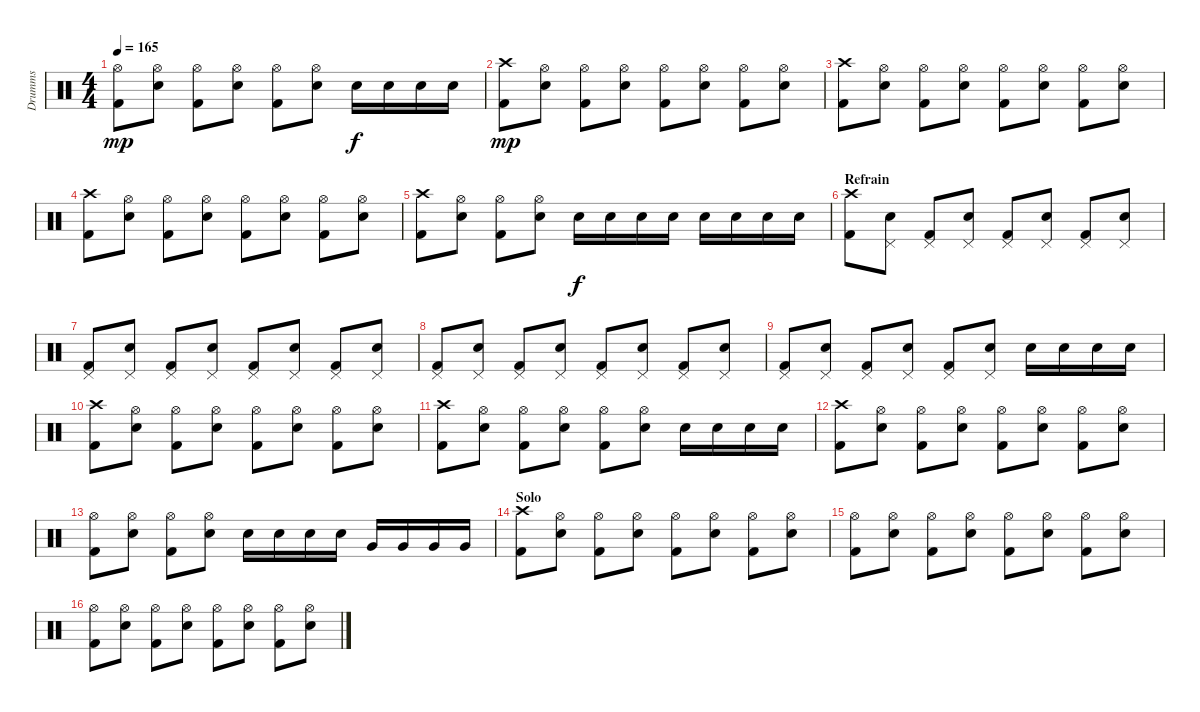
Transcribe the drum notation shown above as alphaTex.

\track ("Drumms" "Drumms") {instrument percussion}
\staff {score}
\articulation defaults
\ts (4 4)
\tempo 165
\clef neutral
\ks c
("Hi-Hat (open)" "Kick (hit) 2").8{dy mp} ("Hi-Hat (open)" "Electric Snare (hit)").8 ("Hi-Hat (open)" "Kick (hit) 2").8 ("Hi-Hat (open)" "Electric Snare (hit)").8 ("Hi-Hat (open)" "Kick (hit) 2").8 ("Hi-Hat (open)" "Electric Snare (hit)").8 "Electric Snare (hit)".16{dy f} "Electric Snare (hit)".16 "Electric Snare (hit)".16 "Electric Snare (hit)".16 |
("Crash high (hit)" "Kick (hit) 2").8{dy mp} ("Hi-Hat (open)" "Electric Snare (hit)").8 ("Hi-Hat (open)" "Kick (hit) 2").8 ("Hi-Hat (open)" "Electric Snare (hit)").8 ("Hi-Hat (open)" "Kick (hit) 2").8 ("Hi-Hat (open)" "Electric Snare (hit)").8 ("Hi-Hat (open)" "Kick (hit) 2").8 ("Hi-Hat (open)" "Electric Snare (hit)").8 |
("Crash high (hit)" "Kick (hit) 2").8 ("Hi-Hat (open)" "Electric Snare (hit)").8 ("Hi-Hat (open)" "Kick (hit) 2").8 ("Hi-Hat (open)" "Electric Snare (hit)").8 ("Hi-Hat (open)" "Kick (hit) 2").8 ("Hi-Hat (open)" "Electric Snare (hit)").8 ("Hi-Hat (open)" "Kick (hit) 2").8 ("Hi-Hat (open)" "Electric Snare (hit)").8 |
("Crash high (hit)" "Kick (hit) 2").8 ("Hi-Hat (open)" "Electric Snare (hit)").8 ("Hi-Hat (open)" "Kick (hit) 2").8 ("Hi-Hat (open)" "Electric Snare (hit)").8 ("Hi-Hat (open)" "Kick (hit) 2").8 ("Hi-Hat (open)" "Electric Snare (hit)").8 ("Hi-Hat (open)" "Kick (hit) 2").8 ("Hi-Hat (open)" "Electric Snare (hit)").8 |
("Crash high (hit)" "Kick (hit) 2").8 ("Hi-Hat (open)" "Electric Snare (hit)").8 ("Hi-Hat (open)" "Kick (hit) 2").8 ("Hi-Hat (open)" "Electric Snare (hit)").8 "Electric Snare (hit)".16{dy f} "Electric Snare (hit)".16 "Electric Snare (hit)".16 "Electric Snare (hit)".16 "Electric Snare (hit)".16 "Electric Snare (hit)".16 "Electric Snare (hit)".16 "Electric Snare (hit)".16 |
\section ("" "Refrain")
("Crash high (hit)" "Kick (hit) 2").8 ("Pedal Hi-Hat (hit)" "Electric Snare (hit)").8 ("Pedal Hi-Hat (hit)" "Kick (hit) 2").8 ("Pedal Hi-Hat (hit)" "Electric Snare (hit)").8 ("Pedal Hi-Hat (hit)" "Kick (hit) 2").8 ("Pedal Hi-Hat (hit)" "Electric Snare (hit)").8 ("Pedal Hi-Hat (hit)" "Kick (hit) 2").8 ("Pedal Hi-Hat (hit)" "Electric Snare (hit)").8 |
("Pedal Hi-Hat (hit)" "Kick (hit) 2").8 ("Pedal Hi-Hat (hit)" "Electric Snare (hit)").8 ("Pedal Hi-Hat (hit)" "Kick (hit) 2").8 ("Pedal Hi-Hat (hit)" "Electric Snare (hit)").8 ("Pedal Hi-Hat (hit)" "Kick (hit) 2").8 ("Pedal Hi-Hat (hit)" "Electric Snare (hit)").8 ("Pedal Hi-Hat (hit)" "Kick (hit) 2").8 ("Pedal Hi-Hat (hit)" "Electric Snare (hit)").8 |
("Pedal Hi-Hat (hit)" "Kick (hit) 2").8 ("Pedal Hi-Hat (hit)" "Electric Snare (hit)").8 ("Pedal Hi-Hat (hit)" "Kick (hit) 2").8 ("Pedal Hi-Hat (hit)" "Electric Snare (hit)").8 ("Pedal Hi-Hat (hit)" "Kick (hit) 2").8 ("Pedal Hi-Hat (hit)" "Electric Snare (hit)").8 ("Pedal Hi-Hat (hit)" "Kick (hit) 2").8 ("Pedal Hi-Hat (hit)" "Electric Snare (hit)").8 |
("Pedal Hi-Hat (hit)" "Kick (hit) 2").8 ("Pedal Hi-Hat (hit)" "Electric Snare (hit)").8 ("Pedal Hi-Hat (hit)" "Kick (hit) 2").8 ("Pedal Hi-Hat (hit)" "Electric Snare (hit)").8 ("Pedal Hi-Hat (hit)" "Kick (hit) 2").8 ("Pedal Hi-Hat (hit)" "Electric Snare (hit)").8 "Electric Snare (hit)".16 "Electric Snare (hit)".16 "Electric Snare (hit)".16 "Electric Snare (hit)".16 |
("Crash high (hit)" "Kick (hit) 2").8 ("Hi-Hat (open)" "Electric Snare (hit)").8 ("Hi-Hat (open)" "Kick (hit) 2").8 ("Hi-Hat (open)" "Electric Snare (hit)").8 ("Hi-Hat (open)" "Kick (hit) 2").8 ("Hi-Hat (open)" "Electric Snare (hit)").8 ("Hi-Hat (open)" "Kick (hit) 2").8 ("Hi-Hat (open)" "Electric Snare (hit)").8 |
("Crash high (hit)" "Kick (hit) 2").8 ("Hi-Hat (open)" "Electric Snare (hit)").8 ("Hi-Hat (open)" "Kick (hit) 2").8 ("Hi-Hat (open)" "Electric Snare (hit)").8 ("Hi-Hat (open)" "Kick (hit) 2").8 ("Hi-Hat (open)" "Electric Snare (hit)").8 "Electric Snare (hit)".16 "Electric Snare (hit)".16 "Electric Snare (hit)".16 "Electric Snare (hit)".16 |
("Crash high (hit)" "Kick (hit) 2").8 ("Hi-Hat (open)" "Electric Snare (hit)").8 ("Hi-Hat (open)" "Kick (hit) 2").8 ("Hi-Hat (open)" "Electric Snare (hit)").8 ("Hi-Hat (open)" "Kick (hit) 2").8 ("Hi-Hat (open)" "Electric Snare (hit)").8 ("Hi-Hat (open)" "Kick (hit) 2").8 ("Hi-Hat (open)" "Electric Snare (hit)").8 |
("Hi-Hat (open)" "Kick (hit) 2").8 ("Hi-Hat (open)" "Electric Snare (hit)").8 ("Hi-Hat (open)" "Kick (hit) 2").8 ("Hi-Hat (open)" "Electric Snare (hit)").8 "Electric Snare (hit)".16 "Electric Snare (hit)".16 "Electric Snare (hit)".16 "Electric Snare (hit)".16 "Very Low Tom (hit)".16 "Very Low Tom (hit)".16 "Very Low Tom (hit)".16 "Very Low Tom (hit)".16 |
\section ("" "Solo")
("Crash high (hit)" "Kick (hit) 2").8 ("Hi-Hat (open)" "Electric Snare (hit)").8 ("Hi-Hat (open)" "Kick (hit) 2").8 ("Hi-Hat (open)" "Electric Snare (hit)").8 ("Hi-Hat (open)" "Kick (hit) 2").8 ("Hi-Hat (open)" "Electric Snare (hit)").8 ("Hi-Hat (open)" "Kick (hit) 2").8 ("Hi-Hat (open)" "Electric Snare (hit)").8 |
("Hi-Hat (open)" "Kick (hit) 2").8 ("Hi-Hat (open)" "Electric Snare (hit)").8 ("Hi-Hat (open)" "Kick (hit) 2").8 ("Hi-Hat (open)" "Electric Snare (hit)").8 ("Hi-Hat (open)" "Kick (hit) 2").8 ("Hi-Hat (open)" "Electric Snare (hit)").8 ("Hi-Hat (open)" "Kick (hit) 2").8 ("Hi-Hat (open)" "Electric Snare (hit)").8 |
("Hi-Hat (open)" "Kick (hit) 2").8 ("Hi-Hat (open)" "Electric Snare (hit)").8 ("Hi-Hat (open)" "Kick (hit) 2").8 ("Hi-Hat (open)" "Electric Snare (hit)").8 ("Hi-Hat (open)" "Kick (hit) 2").8 ("Hi-Hat (open)" "Electric Snare (hit)").8 ("Hi-Hat (open)" "Kick (hit) 2").8 ("Hi-Hat (open)" "Electric Snare (hit)").8
